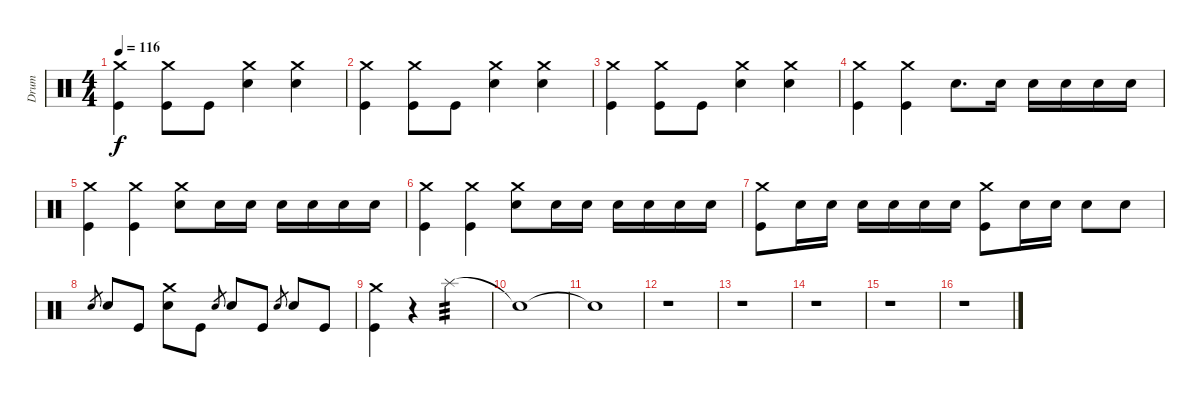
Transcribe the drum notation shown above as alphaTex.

\track ("Drum" "Drum") {instrument percussion}
\staff {score}
\articulation defaults
\ts (4 4)
\tempo 116
\clef neutral
\ks c
("Kick (hit)" "Crash medium (hit)").4{dy f} ("Kick (hit)" "Crash medium (hit)").8 "Kick (hit)".8 ("Electric Snare (hit)" "Crash medium (hit)").4 ("Electric Snare (hit)" "Crash medium (hit)").4 |
("Kick (hit)" "Crash medium (hit)").4 ("Kick (hit)" "Crash medium (hit)").8 "Kick (hit)".8 ("Electric Snare (hit)" "Crash medium (hit)").4 ("Electric Snare (hit)" "Crash medium (hit)").4 |
("Kick (hit)" "Crash medium (hit)").4 ("Kick (hit)" "Crash medium (hit)").8 "Kick (hit)".8 ("Electric Snare (hit)" "Crash medium (hit)").4 ("Electric Snare (hit)" "Crash medium (hit)").4 |
("Kick (hit)" "Crash medium (hit)").4 ("Kick (hit)" "Crash medium (hit)").4 "Electric Snare (hit)".8{d} "Electric Snare (hit)".16 "Electric Snare (hit)".16 "Electric Snare (hit)".16 "Electric Snare (hit)".16 "Electric Snare (hit)".16 |
("Kick (hit)" "Crash medium (hit)").4 ("Kick (hit)" "Crash medium (hit)").4 ("Electric Snare (hit)" "Crash medium (hit)").8 "Electric Snare (hit)".16 "Electric Snare (hit)".16 "Electric Snare (hit)".16 "Electric Snare (hit)".16 "Electric Snare (hit)".16 "Electric Snare (hit)".16 |
("Kick (hit)" "Crash medium (hit)").4 ("Kick (hit)" "Crash medium (hit)").4 ("Electric Snare (hit)" "Crash medium (hit)").8 "Electric Snare (hit)".16 "Electric Snare (hit)".16 "Electric Snare (hit)".16 "Electric Snare (hit)".16 "Electric Snare (hit)".16 "Electric Snare (hit)".16 |
("Kick (hit)" "Crash medium (hit)").8 "Electric Snare (hit)".16 "Electric Snare (hit)".16 "Electric Snare (hit)".16 "Electric Snare (hit)".16 "Electric Snare (hit)".16 "Electric Snare (hit)".16 ("Kick (hit)" "Crash medium (hit)").8 "Electric Snare (hit)".16 "Electric Snare (hit)".16 "Electric Snare (hit)".8 "Electric Snare (hit)".8 |
"Electric Snare (hit)".8{gr} "Electric Snare (hit)".8 "Kick (hit)".8 ("Electric Snare (hit)" "Crash medium (hit)").8 "Kick (hit)".8 "Electric Snare (hit)".8{gr} "Electric Snare (hit)".8 "Kick (hit)".8 "Electric Snare (hit)".8{gr} "Electric Snare (hit)".8 "Kick (hit)".8 |
("Kick (hit)" "Crash medium (hit)").4 r.4 "Splash (hit)".2{tp 3} |
"Snare (hit)"{t}.1 |
"Snare (hit)"{t}.1 |
r.1 |
r.1 |
r.1 |
r.1 |
r.1
